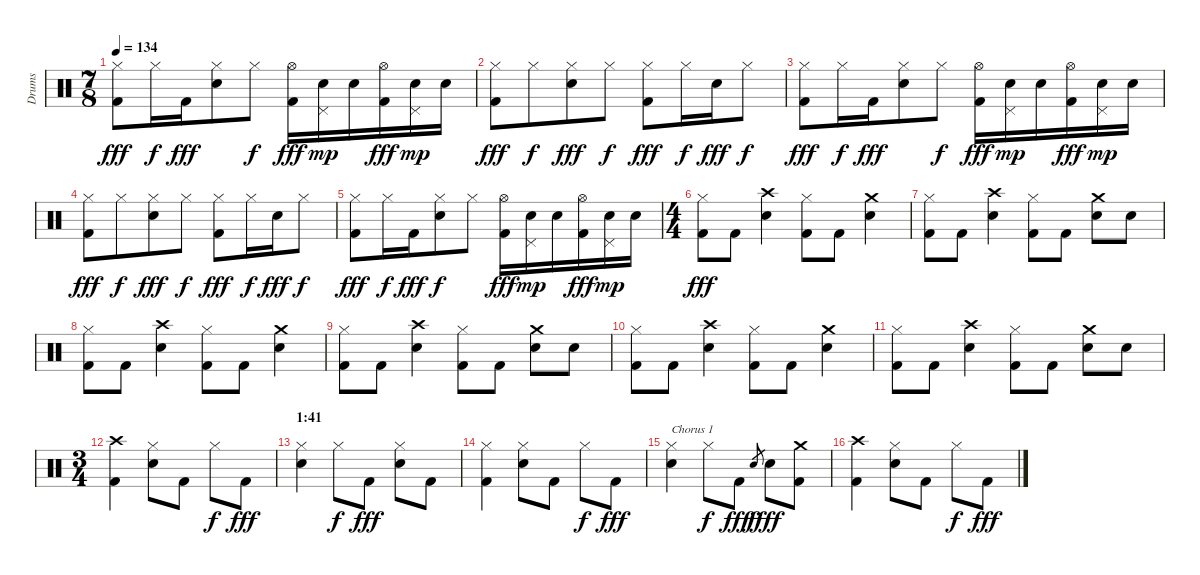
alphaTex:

\track ("Drums" "Drums") {instrument percussion}
\staff {score}
\articulation defaults
\ts (7 8)
\tempo 134
\clef neutral
\ks c
("Hi-Hat (closed)" "Kick (hit) 2").8{dy fff} "Hi-Hat (closed)".16{dy f} "Kick (hit) 2".16{dy fff} ("Hi-Hat (closed)" "Snare (hit) 2").8 "Hi-Hat (closed)".8{dy f} ("Hi-Hat (open)" "Kick (hit) 2").16{dy fff} ("Pedal Hi-Hat (hit)" "Snare (hit) 2").16{dy mp} "Snare (hit) 2".16 ("Hi-Hat (open)" "Kick (hit) 2").16{dy fff} ("Pedal Hi-Hat (hit)" "Snare (hit) 2").16{dy mp} "Snare (hit) 2".16 |
("Hi-Hat (closed)" "Kick (hit) 2").8{dy fff} "Hi-Hat (closed)".8{dy f} ("Hi-Hat (closed)" "Snare (hit) 2").8{dy fff} "Hi-Hat (closed)".8{dy f} ("Hi-Hat (closed)" "Kick (hit) 2").8{dy fff} "Hi-Hat (closed)".16{dy f} "Snare (hit) 2".16{dy fff} "Hi-Hat (closed)".8{dy f} |
("Hi-Hat (closed)" "Kick (hit) 2").8{dy fff} "Hi-Hat (closed)".16{dy f} "Kick (hit) 2".16{dy fff} ("Hi-Hat (closed)" "Snare (hit) 2").8 "Hi-Hat (closed)".8{dy f} ("Hi-Hat (open)" "Kick (hit) 2").16{dy fff} ("Pedal Hi-Hat (hit)" "Snare (hit) 2").16{dy mp} "Snare (hit) 2".16 ("Hi-Hat (open)" "Kick (hit) 2").16{dy fff} ("Pedal Hi-Hat (hit)" "Snare (hit) 2").16{dy mp} "Snare (hit) 2".16 |
("Hi-Hat (closed)" "Kick (hit) 2").8{dy fff} "Hi-Hat (closed)".8{dy f} ("Hi-Hat (closed)" "Snare (hit) 2").8{dy fff} "Hi-Hat (closed)".8{dy f} ("Hi-Hat (closed)" "Kick (hit) 2").8{dy fff} "Hi-Hat (closed)".16{dy f} "Snare (hit) 2".16{dy fff} "Hi-Hat (closed)".8{dy f} |
("Hi-Hat (closed)" "Kick (hit) 2").8{dy fff} "Hi-Hat (closed)".16{dy f} "Kick (hit) 2".16{dy fff} ("Hi-Hat (closed)" "Snare (hit) 2").8{dy f} "Hi-Hat (closed)".8 ("Hi-Hat (open)" "Kick (hit) 2").16{dy fff} ("Pedal Hi-Hat (hit)" "Snare (hit) 2").16{dy mp} "Snare (hit) 2".16 ("Hi-Hat (open)" "Kick (hit) 2").16{dy fff} ("Pedal Hi-Hat (hit)" "Snare (hit) 2").16{dy mp} "Snare (hit) 2".16 |
\ts (4 4)
("Hi-Hat (closed)" "Kick (hit) 2").8{dy fff} "Kick (hit) 2".8 ("Snare (hit) 2" "Crash high (hit)").4 ("Hi-Hat (closed)" "Kick (hit) 2").8 "Kick (hit) 2".8 ("Snare (hit) 2" "Crash medium (hit)").4 |
("Hi-Hat (closed)" "Kick (hit) 2").8 "Kick (hit) 2".8 ("Snare (hit) 2" "Crash high (hit)").4 ("Hi-Hat (closed)" "Kick (hit) 2").8 "Kick (hit) 2".8 ("Snare (hit) 2" "Crash medium (hit)").8 "Snare (hit) 2".8 |
("Hi-Hat (closed)" "Kick (hit) 2").8 "Kick (hit) 2".8 ("Snare (hit) 2" "Crash high (hit)").4 ("Hi-Hat (closed)" "Kick (hit) 2").8 "Kick (hit) 2".8 ("Snare (hit) 2" "Crash medium (hit)").4 |
("Hi-Hat (closed)" "Kick (hit) 2").8 "Kick (hit) 2".8 ("Snare (hit) 2" "Crash high (hit)").4 ("Hi-Hat (closed)" "Kick (hit) 2").8 "Kick (hit) 2".8 ("Snare (hit) 2" "Crash medium (hit)").8 "Snare (hit) 2".8 |
("Hi-Hat (closed)" "Kick (hit) 2").8 "Kick (hit) 2".8 ("Snare (hit) 2" "Crash high (hit)").4 ("Hi-Hat (closed)" "Kick (hit) 2").8 "Kick (hit) 2".8 ("Snare (hit) 2" "Crash medium (hit)").4 |
("Hi-Hat (closed)" "Kick (hit) 2").8 "Kick (hit) 2".8 ("Snare (hit) 2" "Crash high (hit)").4 ("Hi-Hat (closed)" "Kick (hit) 2").8 "Kick (hit) 2".8 ("Snare (hit) 2" "Crash medium (hit)").8 "Snare (hit) 2".8 |
\ts (3 4)
("Kick (hit) 2" "Crash high (hit)").4 ("Hi-Hat (closed)" "Snare (hit) 2").8 "Kick (hit) 2".8 "Hi-Hat (closed)".8{dy f} "Kick (hit) 2".8{dy fff} |
\section ("" "1:41")
("Hi-Hat (closed)" "Snare (hit) 2").4 "Hi-Hat (closed)".8{dy f} "Kick (hit) 2".8{dy fff} ("Hi-Hat (closed)" "Snare (hit) 2").8 "Kick (hit) 2".8 |
("Hi-Hat (closed)" "Kick (hit) 2").4 ("Hi-Hat (closed)" "Snare (hit) 2").8 "Kick (hit) 2".8 "Hi-Hat (closed)".8{dy f} "Kick (hit) 2".8{dy fff} |
("Hi-Hat (closed)" "Snare (hit) 2").4{txt "Chorus 1"} "Hi-Hat (closed)".8{dy f} "Kick (hit) 2".8{dy fff} "Snare (hit) 2".8{gr dy f} "Snare (hit) 2".8{dy fff} ("Crash medium (hit)" "Kick (hit) 2").8 |
("Kick (hit) 2" "Crash high (hit)").4 ("Hi-Hat (closed)" "Snare (hit) 2").8 "Kick (hit) 2".8 "Hi-Hat (closed)".8{dy f} "Kick (hit) 2".8{dy fff}
